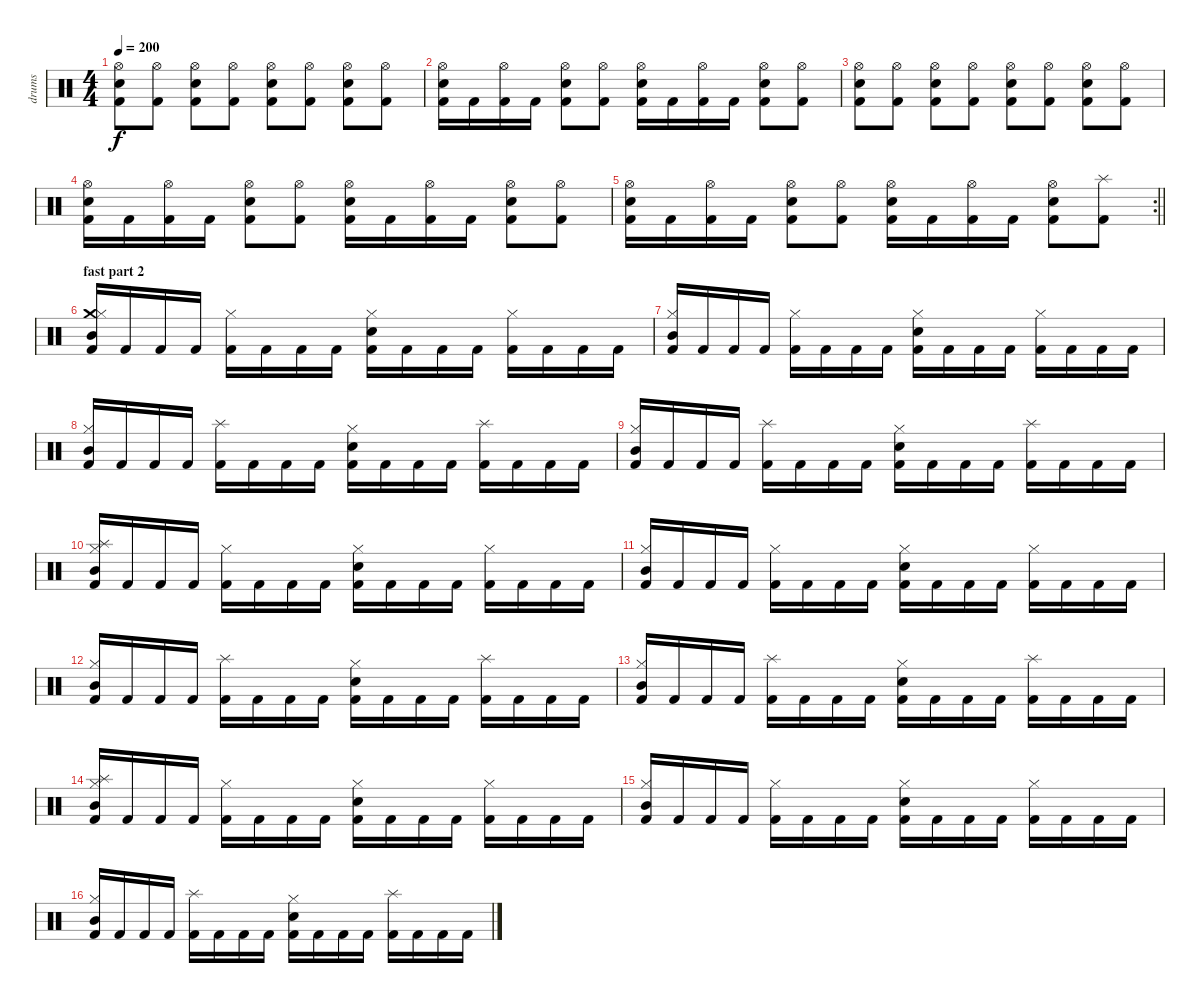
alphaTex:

\track ("drums" "drums") {instrument percussion}
\staff {score}
\articulation defaults
\ts (4 4)
\tempo 200
\clef neutral
\ks c
("Hi-Hat (open)" "Snare (hit) 2" "Kick (hit) 2").8{dy f} ("Hi-Hat (open)" "Kick (hit) 2").8 ("Hi-Hat (open)" "Snare (hit) 2" "Kick (hit) 2").8 ("Hi-Hat (open)" "Kick (hit) 2").8 ("Hi-Hat (open)" "Snare (hit) 2" "Kick (hit) 2").8 ("Hi-Hat (open)" "Kick (hit) 2").8 ("Hi-Hat (open)" "Snare (hit) 2" "Kick (hit) 2").8 ("Hi-Hat (open)" "Kick (hit) 2").8 |
("Hi-Hat (open)" "Snare (hit) 2" "Kick (hit) 2").16 "Kick (hit) 2".16 ("Hi-Hat (open)" "Kick (hit) 2").16 "Kick (hit) 2".16 ("Hi-Hat (open)" "Snare (hit) 2" "Kick (hit) 2").8 ("Hi-Hat (open)" "Kick (hit) 2").8 ("Hi-Hat (open)" "Snare (hit) 2" "Kick (hit) 2").16 "Kick (hit) 2".16 ("Hi-Hat (open)" "Kick (hit) 2").16 "Kick (hit) 2".16 ("Hi-Hat (open)" "Snare (hit) 2" "Kick (hit) 2").8 ("Hi-Hat (open)" "Kick (hit) 2").8 |
("Hi-Hat (open)" "Snare (hit) 2" "Kick (hit) 2").8 ("Hi-Hat (open)" "Kick (hit) 2").8 ("Hi-Hat (open)" "Snare (hit) 2" "Kick (hit) 2").8 ("Hi-Hat (open)" "Kick (hit) 2").8 ("Hi-Hat (open)" "Snare (hit) 2" "Kick (hit) 2").8 ("Hi-Hat (open)" "Kick (hit) 2").8 ("Hi-Hat (open)" "Snare (hit) 2" "Kick (hit) 2").8 ("Hi-Hat (open)" "Kick (hit) 2").8 |
("Hi-Hat (open)" "Snare (hit) 2" "Kick (hit) 2").16 "Kick (hit) 2".16 ("Hi-Hat (open)" "Kick (hit) 2").16 "Kick (hit) 2".16 ("Hi-Hat (open)" "Snare (hit) 2" "Kick (hit) 2").8 ("Hi-Hat (open)" "Kick (hit) 2").8 ("Hi-Hat (open)" "Snare (hit) 2" "Kick (hit) 2").16 "Kick (hit) 2".16 ("Hi-Hat (open)" "Kick (hit) 2").16 "Kick (hit) 2".16 ("Hi-Hat (open)" "Snare (hit) 2" "Kick (hit) 2").8 ("Hi-Hat (open)" "Kick (hit) 2").8 |
\rc 2
\barLineRight lightlight
("Hi-Hat (open)" "Snare (hit) 2" "Kick (hit) 2").16 "Kick (hit) 2".16 ("Hi-Hat (open)" "Kick (hit) 2").16 "Kick (hit) 2".16 ("Hi-Hat (open)" "Snare (hit) 2" "Kick (hit) 2").8 ("Hi-Hat (open)" "Kick (hit) 2").8 ("Hi-Hat (open)" "Snare (hit) 2" "Kick (hit) 2").16 "Kick (hit) 2".16 ("Hi-Hat (open)" "Kick (hit) 2").16 "Kick (hit) 2".16 ("Hi-Hat (open)" "Snare (hit) 2" "Kick (hit) 2").8 ("Splash (hit)" "Kick (hit) 2").8 |
\section ("" "fast part 2")
("Crash medium (hit)" "Hi-Hat (closed)" "Mid Tom (hit)" "Kick (hit) 2").16 "Kick (hit) 2".16 "Kick (hit) 2".16 "Kick (hit) 2".16 ("Hi-Hat (closed)" "Kick (hit) 2").16 "Kick (hit) 2".16 "Kick (hit) 2".16 "Kick (hit) 2".16 ("Hi-Hat (closed)" "Snare (hit) 2" "Kick (hit) 2").16 "Kick (hit) 2".16 "Kick (hit) 2".16 "Kick (hit) 2".16 ("Hi-Hat (closed)" "Kick (hit) 2").16 "Kick (hit) 2".16 "Kick (hit) 2".16 "Kick (hit) 2".16 |
("Hi-Hat (closed)" "Mid Tom (hit)" "Kick (hit) 2").16 "Kick (hit) 2".16 "Kick (hit) 2".16 "Kick (hit) 2".16 ("Hi-Hat (closed)" "Kick (hit) 2").16 "Kick (hit) 2".16 "Kick (hit) 2".16 "Kick (hit) 2".16 ("Hi-Hat (closed)" "Snare (hit) 2" "Kick (hit) 2").16 "Kick (hit) 2".16 "Kick (hit) 2".16 "Kick (hit) 2".16 ("Hi-Hat (closed)" "Kick (hit) 2").16 "Kick (hit) 2".16 "Kick (hit) 2".16 "Kick (hit) 2".16 |
("Hi-Hat (closed)" "Mid Tom (hit)" "Kick (hit) 2").16 "Kick (hit) 2".16 "Kick (hit) 2".16 "Kick (hit) 2".16 ("Splash (hit)" "Kick (hit) 2").16 "Kick (hit) 2".16 "Kick (hit) 2".16 "Kick (hit) 2".16 ("Hi-Hat (closed)" "Snare (hit) 2" "Kick (hit) 2").16 "Kick (hit) 2".16 "Kick (hit) 2".16 "Kick (hit) 2".16 ("Splash (hit)" "Kick (hit) 2").16 "Kick (hit) 2".16 "Kick (hit) 2".16 "Kick (hit) 2".16 |
("Hi-Hat (closed)" "Mid Tom (hit)" "Kick (hit) 2").16 "Kick (hit) 2".16 "Kick (hit) 2".16 "Kick (hit) 2".16 ("Splash (hit)" "Kick (hit) 2").16 "Kick (hit) 2".16 "Kick (hit) 2".16 "Kick (hit) 2".16 ("Hi-Hat (closed)" "Snare (hit) 2" "Kick (hit) 2").16 "Kick (hit) 2".16 "Kick (hit) 2".16 "Kick (hit) 2".16 ("Splash (hit)" "Kick (hit) 2").16 "Kick (hit) 2".16 "Kick (hit) 2".16 "Kick (hit) 2".16 |
("Splash (hit)" "Hi-Hat (closed)" "Mid Tom (hit)" "Kick (hit) 2").16 "Kick (hit) 2".16 "Kick (hit) 2".16 "Kick (hit) 2".16 ("Hi-Hat (closed)" "Kick (hit) 2").16 "Kick (hit) 2".16 "Kick (hit) 2".16 "Kick (hit) 2".16 ("Hi-Hat (closed)" "Snare (hit) 2" "Kick (hit) 2").16 "Kick (hit) 2".16 "Kick (hit) 2".16 "Kick (hit) 2".16 ("Hi-Hat (closed)" "Kick (hit) 2").16 "Kick (hit) 2".16 "Kick (hit) 2".16 "Kick (hit) 2".16 |
("Hi-Hat (closed)" "Mid Tom (hit)" "Kick (hit) 2").16 "Kick (hit) 2".16 "Kick (hit) 2".16 "Kick (hit) 2".16 ("Hi-Hat (closed)" "Kick (hit) 2").16 "Kick (hit) 2".16 "Kick (hit) 2".16 "Kick (hit) 2".16 ("Hi-Hat (closed)" "Snare (hit) 2" "Kick (hit) 2").16 "Kick (hit) 2".16 "Kick (hit) 2".16 "Kick (hit) 2".16 ("Hi-Hat (closed)" "Kick (hit) 2").16 "Kick (hit) 2".16 "Kick (hit) 2".16 "Kick (hit) 2".16 |
("Hi-Hat (closed)" "Mid Tom (hit)" "Kick (hit) 2").16 "Kick (hit) 2".16 "Kick (hit) 2".16 "Kick (hit) 2".16 ("Splash (hit)" "Kick (hit) 2").16 "Kick (hit) 2".16 "Kick (hit) 2".16 "Kick (hit) 2".16 ("Hi-Hat (closed)" "Snare (hit) 2" "Kick (hit) 2").16 "Kick (hit) 2".16 "Kick (hit) 2".16 "Kick (hit) 2".16 ("Splash (hit)" "Kick (hit) 2").16 "Kick (hit) 2".16 "Kick (hit) 2".16 "Kick (hit) 2".16 |
("Hi-Hat (closed)" "Mid Tom (hit)" "Kick (hit) 2").16 "Kick (hit) 2".16 "Kick (hit) 2".16 "Kick (hit) 2".16 ("Splash (hit)" "Kick (hit) 2").16 "Kick (hit) 2".16 "Kick (hit) 2".16 "Kick (hit) 2".16 ("Hi-Hat (closed)" "Snare (hit) 2" "Kick (hit) 2").16 "Kick (hit) 2".16 "Kick (hit) 2".16 "Kick (hit) 2".16 ("Splash (hit)" "Kick (hit) 2").16 "Kick (hit) 2".16 "Kick (hit) 2".16 "Kick (hit) 2".16 |
("Splash (hit)" "Hi-Hat (closed)" "Mid Tom (hit)" "Kick (hit) 2").16 "Kick (hit) 2".16 "Kick (hit) 2".16 "Kick (hit) 2".16 ("Hi-Hat (closed)" "Kick (hit) 2").16 "Kick (hit) 2".16 "Kick (hit) 2".16 "Kick (hit) 2".16 ("Hi-Hat (closed)" "Snare (hit) 2" "Kick (hit) 2").16 "Kick (hit) 2".16 "Kick (hit) 2".16 "Kick (hit) 2".16 ("Hi-Hat (closed)" "Kick (hit) 2").16 "Kick (hit) 2".16 "Kick (hit) 2".16 "Kick (hit) 2".16 |
("Hi-Hat (closed)" "Mid Tom (hit)" "Kick (hit) 2").16 "Kick (hit) 2".16 "Kick (hit) 2".16 "Kick (hit) 2".16 ("Hi-Hat (closed)" "Kick (hit) 2").16 "Kick (hit) 2".16 "Kick (hit) 2".16 "Kick (hit) 2".16 ("Hi-Hat (closed)" "Snare (hit) 2" "Kick (hit) 2").16 "Kick (hit) 2".16 "Kick (hit) 2".16 "Kick (hit) 2".16 ("Hi-Hat (closed)" "Kick (hit) 2").16 "Kick (hit) 2".16 "Kick (hit) 2".16 "Kick (hit) 2".16 |
("Hi-Hat (closed)" "Mid Tom (hit)" "Kick (hit) 2").16 "Kick (hit) 2".16 "Kick (hit) 2".16 "Kick (hit) 2".16 ("Splash (hit)" "Kick (hit) 2").16 "Kick (hit) 2".16 "Kick (hit) 2".16 "Kick (hit) 2".16 ("Hi-Hat (closed)" "Snare (hit) 2" "Kick (hit) 2").16 "Kick (hit) 2".16 "Kick (hit) 2".16 "Kick (hit) 2".16 ("Splash (hit)" "Kick (hit) 2").16 "Kick (hit) 2".16 "Kick (hit) 2".16 "Kick (hit) 2".16
